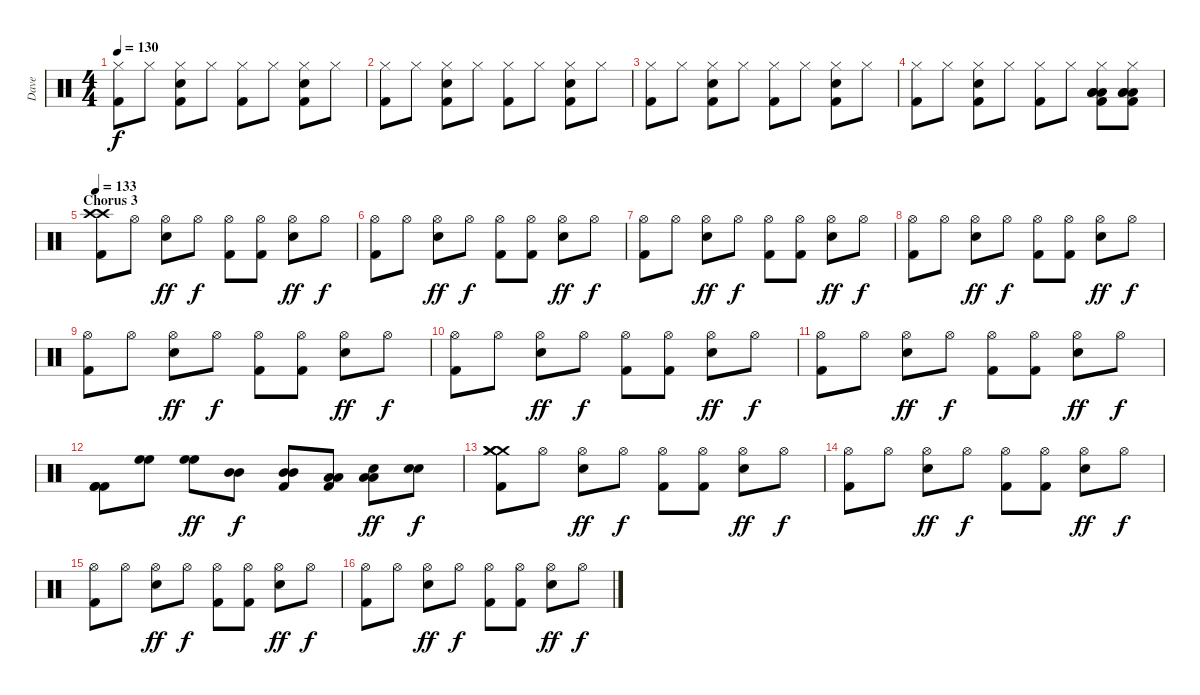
\track ("Dave" "Dave") {instrument percussion}
\staff {score}
\articulation defaults
\ts (4 4)
\tempo 130
\clef neutral
\ks c
("Hi-Hat (closed)" "Kick (hit) 2").8{dy f} "Hi-Hat (closed)".8 ("Hi-Hat (closed)" "Snare (hit) 2" "Kick (hit) 2").8 "Hi-Hat (closed)".8 ("Hi-Hat (closed)" "Kick (hit) 2").8 "Hi-Hat (closed)".8 ("Hi-Hat (closed)" "Snare (hit) 2" "Kick (hit) 2").8 "Hi-Hat (closed)".8 |
("Hi-Hat (closed)" "Kick (hit) 2").8 "Hi-Hat (closed)".8 ("Hi-Hat (closed)" "Snare (hit) 2" "Kick (hit) 2").8 "Hi-Hat (closed)".8 ("Hi-Hat (closed)" "Kick (hit) 2").8 "Hi-Hat (closed)".8 ("Hi-Hat (closed)" "Snare (hit) 2" "Kick (hit) 2").8 "Hi-Hat (closed)".8 |
("Hi-Hat (closed)" "Kick (hit) 2").8 "Hi-Hat (closed)".8 ("Hi-Hat (closed)" "Snare (hit) 2" "Kick (hit) 2").8 "Hi-Hat (closed)".8 ("Hi-Hat (closed)" "Kick (hit) 2").8 "Hi-Hat (closed)".8 ("Hi-Hat (closed)" "Snare (hit) 2" "Kick (hit) 2").8 "Hi-Hat (closed)".8 |
("Hi-Hat (closed)" "Kick (hit) 2").8 "Hi-Hat (closed)".8 ("Hi-Hat (closed)" "Snare (hit) 2" "Kick (hit) 2").8 "Hi-Hat (closed)".8 ("Hi-Hat (closed)" "Kick (hit) 2").8 "Hi-Hat (closed)".8 ("Hi-Hat (closed)" "Low Floor Tom (hit)" "Low Floor Tom (hit)" "Low Floor Tom (hit)" "Kick (hit) 2").8 ("Hi-Hat (closed)" "Low Floor Tom (hit)" "Low Floor Tom (hit)" "Low Floor Tom (hit)" "Kick (hit) 2").8 |
\section ("" "Chorus 3")
\tempo 133
("Crash high (hit)" "Crash high (hit)" "Kick (hit) 2").8 "Hi-Hat (open)".8 ("Hi-Hat (open)" "Snare (hit) 2").8{dy ff} "Hi-Hat (open)".8{dy f} ("Hi-Hat (open)" "Kick (hit) 2").8 ("Hi-Hat (open)" "Kick (hit) 2").8 ("Hi-Hat (open)" "Snare (hit) 2").8{dy ff} "Hi-Hat (open)".8{dy f} |
("Hi-Hat (open)" "Kick (hit) 2").8 "Hi-Hat (open)".8 ("Hi-Hat (open)" "Snare (hit) 2").8{dy ff} "Hi-Hat (open)".8{dy f} ("Hi-Hat (open)" "Kick (hit) 2").8 ("Hi-Hat (open)" "Kick (hit) 2").8 ("Hi-Hat (open)" "Snare (hit) 2").8{dy ff} "Hi-Hat (open)".8{dy f} |
("Hi-Hat (open)" "Kick (hit) 2").8 "Hi-Hat (open)".8 ("Hi-Hat (open)" "Snare (hit) 2").8{dy ff} "Hi-Hat (open)".8{dy f} ("Hi-Hat (open)" "Kick (hit) 2").8 ("Hi-Hat (open)" "Kick (hit) 2").8 ("Hi-Hat (open)" "Snare (hit) 2").8{dy ff} "Hi-Hat (open)".8{dy f} |
("Hi-Hat (open)" "Kick (hit) 2").8 "Hi-Hat (open)".8 ("Hi-Hat (open)" "Snare (hit) 2").8{dy ff} "Hi-Hat (open)".8{dy f} ("Hi-Hat (open)" "Kick (hit) 2").8 ("Hi-Hat (open)" "Kick (hit) 2").8 ("Hi-Hat (open)" "Snare (hit) 2").8{dy ff} "Hi-Hat (open)".8{dy f} |
("Hi-Hat (open)" "Kick (hit) 2").8 "Hi-Hat (open)".8 ("Hi-Hat (open)" "Snare (hit) 2").8{dy ff} "Hi-Hat (open)".8{dy f} ("Hi-Hat (open)" "Kick (hit) 2").8 ("Hi-Hat (open)" "Kick (hit) 2").8 ("Hi-Hat (open)" "Snare (hit) 2").8{dy ff} "Hi-Hat (open)".8{dy f} |
("Hi-Hat (open)" "Kick (hit) 2").8 "Hi-Hat (open)".8 ("Hi-Hat (open)" "Snare (hit) 2").8{dy ff} "Hi-Hat (open)".8{dy f} ("Hi-Hat (open)" "Kick (hit) 2").8 ("Hi-Hat (open)" "Kick (hit) 2").8 ("Hi-Hat (open)" "Snare (hit) 2").8{dy ff} "Hi-Hat (open)".8{dy f} |
("Hi-Hat (open)" "Kick (hit) 2").8 "Hi-Hat (open)".8 ("Hi-Hat (open)" "Snare (hit) 2").8{dy ff} "Hi-Hat (open)".8{dy f} ("Hi-Hat (open)" "Kick (hit) 2").8 ("Hi-Hat (open)" "Kick (hit) 2").8 ("Hi-Hat (open)" "Snare (hit) 2").8{dy ff} "Hi-Hat (open)".8{dy f} |
("Kick (hit) 2" "Kick (hit) 2" "Kick (hit) 2").8 ("High Floor Tom (hit)" "High Floor Tom (hit)").8 ("High Floor Tom (hit)" "High Floor Tom (hit)").8{dy ff} ("Mid Tom (hit)" "Mid Tom (hit)").8{dy f} ("Mid Tom (hit)" "Mid Tom (hit)" "Kick (hit) 2").8 ("Low Tom (hit)" "Low Tom (hit)" "Kick (hit) 2").8 ("Low Tom (hit)" "Snare (hit) 2" "Low Tom (hit)").8{dy ff} ("Snare (hit) 2" "Snare (hit) 2").8{dy f} |
("Crash medium (hit)" "Crash medium (hit)" "Crash medium (hit)" "Kick (hit) 2").8 "Hi-Hat (open)".8 ("Hi-Hat (open)" "Snare (hit) 2").8{dy ff} "Hi-Hat (open)".8{dy f} ("Hi-Hat (open)" "Kick (hit) 2").8 ("Hi-Hat (open)" "Kick (hit) 2").8 ("Hi-Hat (open)" "Snare (hit) 2").8{dy ff} "Hi-Hat (open)".8{dy f} |
("Hi-Hat (open)" "Kick (hit) 2").8 "Hi-Hat (open)".8 ("Hi-Hat (open)" "Snare (hit) 2").8{dy ff} "Hi-Hat (open)".8{dy f} ("Hi-Hat (open)" "Kick (hit) 2").8 ("Hi-Hat (open)" "Kick (hit) 2").8 ("Hi-Hat (open)" "Snare (hit) 2").8{dy ff} "Hi-Hat (open)".8{dy f} |
("Hi-Hat (open)" "Kick (hit) 2").8 "Hi-Hat (open)".8 ("Hi-Hat (open)" "Snare (hit) 2").8{dy ff} "Hi-Hat (open)".8{dy f} ("Hi-Hat (open)" "Kick (hit) 2").8 ("Hi-Hat (open)" "Kick (hit) 2").8 ("Hi-Hat (open)" "Snare (hit) 2").8{dy ff} "Hi-Hat (open)".8{dy f} |
("Hi-Hat (open)" "Kick (hit) 2").8 "Hi-Hat (open)".8 ("Hi-Hat (open)" "Snare (hit) 2").8{dy ff} "Hi-Hat (open)".8{dy f} ("Hi-Hat (open)" "Kick (hit) 2").8 ("Hi-Hat (open)" "Kick (hit) 2").8 ("Hi-Hat (open)" "Snare (hit) 2").8{dy ff} "Hi-Hat (open)".8{dy f}
